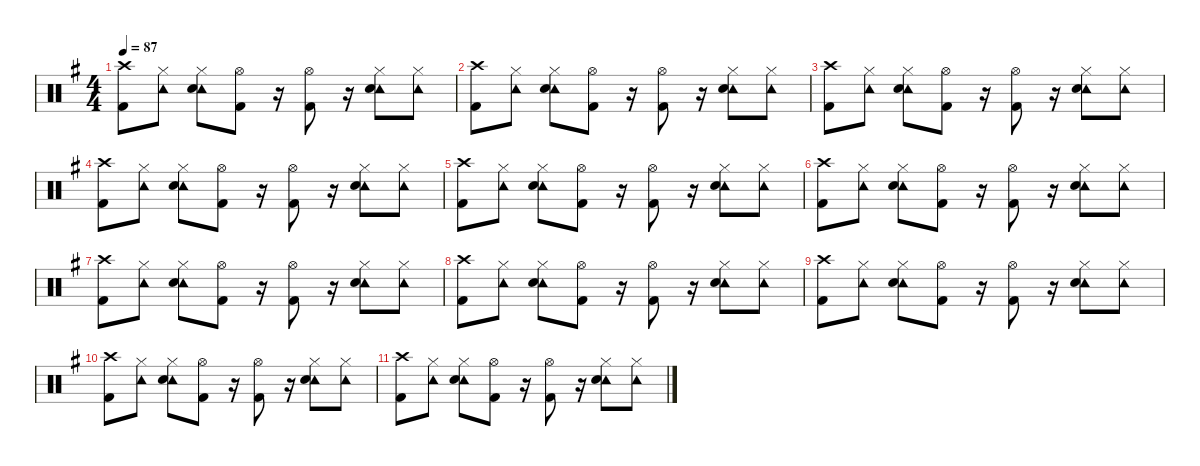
\defaultSystemsLayout 4
\hideDynamics
\bracketExtendMode nobrackets
\singleTrackTrackNamePolicy hidden
\multiTrackTrackNamePolicy hidden
\otherSystemsTrackNameOrientation horizontal
\track ("Drums" "drm.") {defaultSystemsLayout 4 instrument percussion}
\staff {score}
\articulation defaults
\ts (4 4)
\tempo 87
\clef neutral
\ks eminor
("Crash high (hit)"{acc forcenatural} "Kick (hit) 2"{acc forcenatural}).8{dy f beam Down} ("Tambourine (hit)"{acc forcenatural} "Hi-Hat (closed)"{acc forcenatural}).8{beam Down} ("Tambourine (hit)"{acc forcenatural} "Hi-Hat (closed)"{acc forcenatural} "Snare (hit) 2"{acc forcenatural}).8{beam Down} ("Hi-Hat (open)"{acc forcenatural} "Kick (hit) 2"{acc forcenatural}).8{beam Down} r.16{beam Down} ("Hi-Hat (open)"{acc forcenatural} "Kick (hit) 2"{acc forcenatural}).8{beam Down} r.16{beam Down} ("Tambourine (hit)"{acc forcenatural} "Hi-Hat (closed)"{acc forcenatural} "Snare (hit) 2"{acc forcenatural}).8{beam Down} ("Tambourine (hit)"{acc forcenatural} "Hi-Hat (closed)"{acc forcenatural}).8{beam Down} |
("Crash high (hit)"{acc forcenatural} "Kick (hit) 2"{acc forcenatural}).8{beam Down} ("Tambourine (hit)"{acc forcenatural} "Hi-Hat (closed)"{acc forcenatural}).8{beam Down} ("Tambourine (hit)"{acc forcenatural} "Hi-Hat (closed)"{acc forcenatural} "Snare (hit) 2"{acc forcenatural}).8{beam Down} ("Hi-Hat (open)"{acc forcenatural} "Kick (hit) 2"{acc forcenatural}).8{beam Down} r.16{beam Down} ("Hi-Hat (open)"{acc forcenatural} "Kick (hit) 2"{acc forcenatural}).8{beam Down} r.16{beam Down} ("Tambourine (hit)"{acc forcenatural} "Hi-Hat (closed)"{acc forcenatural} "Snare (hit) 2"{acc forcenatural}).8{beam Down} ("Tambourine (hit)"{acc forcenatural} "Hi-Hat (closed)"{acc forcenatural}).8{beam Down} |
("Crash high (hit)"{acc forcenatural} "Kick (hit) 2"{acc forcenatural}).8{beam Down} ("Tambourine (hit)"{acc forcenatural} "Hi-Hat (closed)"{acc forcenatural}).8{beam Down} ("Tambourine (hit)"{acc forcenatural} "Hi-Hat (closed)"{acc forcenatural} "Snare (hit) 2"{acc forcenatural}).8{beam Down} ("Hi-Hat (open)"{acc forcenatural} "Kick (hit) 2"{acc forcenatural}).8{beam Down} r.16{beam Down} ("Hi-Hat (open)"{acc forcenatural} "Kick (hit) 2"{acc forcenatural}).8{beam Down} r.16{beam Down} ("Tambourine (hit)"{acc forcenatural} "Hi-Hat (closed)"{acc forcenatural} "Snare (hit) 2"{acc forcenatural}).8{beam Down} ("Tambourine (hit)"{acc forcenatural} "Hi-Hat (closed)"{acc forcenatural}).8{beam Down} |
("Crash high (hit)"{acc forcenatural} "Kick (hit) 2"{acc forcenatural}).8{beam Down} ("Tambourine (hit)"{acc forcenatural} "Hi-Hat (closed)"{acc forcenatural}).8{beam Down} ("Tambourine (hit)"{acc forcenatural} "Hi-Hat (closed)"{acc forcenatural} "Snare (hit) 2"{acc forcenatural}).8{beam Down} ("Hi-Hat (open)"{acc forcenatural} "Kick (hit) 2"{acc forcenatural}).8{beam Down} r.16{beam Down} ("Hi-Hat (open)"{acc forcenatural} "Kick (hit) 2"{acc forcenatural}).8{beam Down} r.16{beam Down} ("Tambourine (hit)"{acc forcenatural} "Hi-Hat (closed)"{acc forcenatural} "Snare (hit) 2"{acc forcenatural}).8{beam Down} ("Tambourine (hit)"{acc forcenatural} "Hi-Hat (closed)"{acc forcenatural}).8{beam Down} |
("Crash high (hit)"{acc forcenatural} "Kick (hit) 2"{acc forcenatural}).8{beam Down} ("Tambourine (hit)"{acc forcenatural} "Hi-Hat (closed)"{acc forcenatural}).8{beam Down} ("Tambourine (hit)"{acc forcenatural} "Hi-Hat (closed)"{acc forcenatural} "Snare (hit) 2"{acc forcenatural}).8{beam Down} ("Hi-Hat (open)"{acc forcenatural} "Kick (hit) 2"{acc forcenatural}).8{beam Down} r.16{beam Down} ("Hi-Hat (open)"{acc forcenatural} "Kick (hit) 2"{acc forcenatural}).8{beam Down} r.16{beam Down} ("Tambourine (hit)"{acc forcenatural} "Hi-Hat (closed)"{acc forcenatural} "Snare (hit) 2"{acc forcenatural}).8{beam Down} ("Tambourine (hit)"{acc forcenatural} "Hi-Hat (closed)"{acc forcenatural}).8{beam Down} |
("Crash high (hit)"{acc forcenatural} "Kick (hit) 2"{acc forcenatural}).8{beam Down} ("Tambourine (hit)"{acc forcenatural} "Hi-Hat (closed)"{acc forcenatural}).8{beam Down} ("Tambourine (hit)"{acc forcenatural} "Hi-Hat (closed)"{acc forcenatural} "Snare (hit) 2"{acc forcenatural}).8{beam Down} ("Hi-Hat (open)"{acc forcenatural} "Kick (hit) 2"{acc forcenatural}).8{beam Down} r.16{beam Down} ("Hi-Hat (open)"{acc forcenatural} "Kick (hit) 2"{acc forcenatural}).8{beam Down} r.16{beam Down} ("Tambourine (hit)"{acc forcenatural} "Hi-Hat (closed)"{acc forcenatural} "Snare (hit) 2"{acc forcenatural}).8{beam Down} ("Tambourine (hit)"{acc forcenatural} "Hi-Hat (closed)"{acc forcenatural}).8{beam Down} |
("Crash high (hit)"{acc forcenatural} "Kick (hit) 2"{acc forcenatural}).8{beam Down} ("Tambourine (hit)"{acc forcenatural} "Hi-Hat (closed)"{acc forcenatural}).8{beam Down} ("Tambourine (hit)"{acc forcenatural} "Hi-Hat (closed)"{acc forcenatural} "Snare (hit) 2"{acc forcenatural}).8{beam Down} ("Hi-Hat (open)"{acc forcenatural} "Kick (hit) 2"{acc forcenatural}).8{beam Down} r.16{beam Down} ("Hi-Hat (open)"{acc forcenatural} "Kick (hit) 2"{acc forcenatural}).8{beam Down} r.16{beam Down} ("Tambourine (hit)"{acc forcenatural} "Hi-Hat (closed)"{acc forcenatural} "Snare (hit) 2"{acc forcenatural}).8{beam Down} ("Tambourine (hit)"{acc forcenatural} "Hi-Hat (closed)"{acc forcenatural}).8{beam Down} |
("Crash high (hit)"{acc forcenatural} "Kick (hit) 2"{acc forcenatural}).8{beam Down} ("Tambourine (hit)"{acc forcenatural} "Hi-Hat (closed)"{acc forcenatural}).8{beam Down} ("Tambourine (hit)"{acc forcenatural} "Hi-Hat (closed)"{acc forcenatural} "Snare (hit) 2"{acc forcenatural}).8{beam Down} ("Hi-Hat (open)"{acc forcenatural} "Kick (hit) 2"{acc forcenatural}).8{beam Down} r.16{beam Down} ("Hi-Hat (open)"{acc forcenatural} "Kick (hit) 2"{acc forcenatural}).8{beam Down} r.16{beam Down} ("Tambourine (hit)"{acc forcenatural} "Hi-Hat (closed)"{acc forcenatural} "Snare (hit) 2"{acc forcenatural}).8{beam Down} ("Tambourine (hit)"{acc forcenatural} "Hi-Hat (closed)"{acc forcenatural}).8{beam Down} |
("Crash high (hit)"{acc forcenatural} "Kick (hit) 2"{acc forcenatural}).8{beam Down} ("Tambourine (hit)"{acc forcenatural} "Hi-Hat (closed)"{acc forcenatural}).8{beam Down} ("Tambourine (hit)"{acc forcenatural} "Hi-Hat (closed)"{acc forcenatural} "Snare (hit) 2"{acc forcenatural}).8{beam Down} ("Hi-Hat (open)"{acc forcenatural} "Kick (hit) 2"{acc forcenatural}).8{beam Down} r.16{beam Down} ("Hi-Hat (open)"{acc forcenatural} "Kick (hit) 2"{acc forcenatural}).8{beam Down} r.16{beam Down} ("Tambourine (hit)"{acc forcenatural} "Hi-Hat (closed)"{acc forcenatural} "Snare (hit) 2"{acc forcenatural}).8{beam Down} ("Tambourine (hit)"{acc forcenatural} "Hi-Hat (closed)"{acc forcenatural}).8{beam Down} |
("Crash high (hit)"{acc forcenatural} "Kick (hit) 2"{acc forcenatural}).8{beam Down} ("Tambourine (hit)"{acc forcenatural} "Hi-Hat (closed)"{acc forcenatural}).8{beam Down} ("Tambourine (hit)"{acc forcenatural} "Hi-Hat (closed)"{acc forcenatural} "Snare (hit) 2"{acc forcenatural}).8{beam Down} ("Hi-Hat (open)"{acc forcenatural} "Kick (hit) 2"{acc forcenatural}).8{beam Down} r.16{beam Down} ("Hi-Hat (open)"{acc forcenatural} "Kick (hit) 2"{acc forcenatural}).8{beam Down} r.16{beam Down} ("Tambourine (hit)"{acc forcenatural} "Hi-Hat (closed)"{acc forcenatural} "Snare (hit) 2"{acc forcenatural}).8{beam Down} ("Tambourine (hit)"{acc forcenatural} "Hi-Hat (closed)"{acc forcenatural}).8{beam Down} |
("Crash high (hit)"{acc forcenatural} "Kick (hit) 2"{acc forcenatural}).8{beam Down} ("Tambourine (hit)"{acc forcenatural} "Hi-Hat (closed)"{acc forcenatural}).8{beam Down} ("Tambourine (hit)"{acc forcenatural} "Hi-Hat (closed)"{acc forcenatural} "Snare (hit) 2"{acc forcenatural}).8{beam Down} ("Hi-Hat (open)"{acc forcenatural} "Kick (hit) 2"{acc forcenatural}).8{beam Down} r.16{beam Down} ("Hi-Hat (open)"{acc forcenatural} "Kick (hit) 2"{acc forcenatural}).8{beam Down} r.16{beam Down} ("Tambourine (hit)"{acc forcenatural} "Hi-Hat (closed)"{acc forcenatural} "Snare (hit) 2"{acc forcenatural}).8{beam Down} ("Tambourine (hit)"{acc forcenatural} "Hi-Hat (closed)"{acc forcenatural}).8{beam Down}
